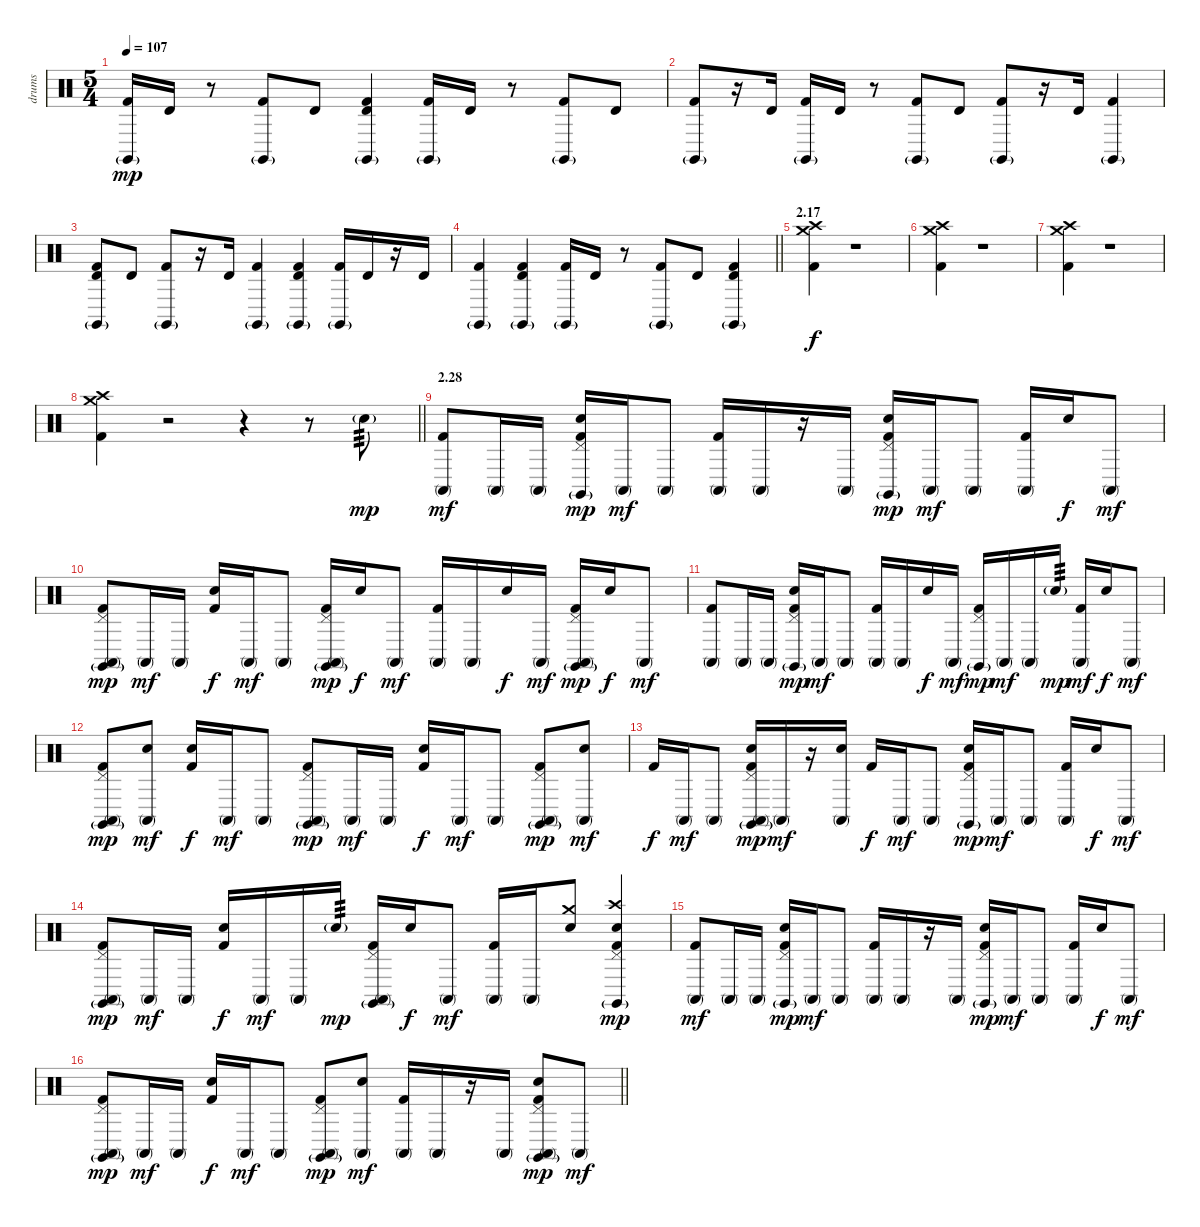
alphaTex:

\track ("drums" "drums") {instrument percussion}
\staff {score}
\articulation defaults
\ts (5 4)
\tempo 107
\clef neutral
\ks c
("Claves (hit)"{g} "Kick (hit) 2").16{dy mp} "Timbale high (hit)".16 r.8 ("Claves (hit)"{g} "Kick (hit) 2").8 "Timbale high (hit)".8 ("Timbale high (hit)" "Claves (hit)"{g} "Kick (hit) 2").4 ("Claves (hit)"{g} "Kick (hit) 2").16 "Timbale high (hit)".16 r.8 ("Claves (hit)"{g} "Kick (hit) 2").8 "Timbale high (hit)".8 |
("Claves (hit)"{g} "Kick (hit) 2").8 r.16 "Timbale high (hit)".16 ("Claves (hit)"{g} "Kick (hit) 2").16 "Timbale high (hit)".16 r.8 ("Claves (hit)"{g} "Kick (hit) 2").8 "Timbale high (hit)".8 ("Claves (hit)"{g} "Kick (hit) 2").8 r.16 "Timbale high (hit)".16 ("Claves (hit)"{g} "Kick (hit) 2").4 |
("Timbale high (hit)" "Claves (hit)"{g} "Kick (hit) 2").8 "Timbale high (hit)".8 ("Claves (hit)"{g} "Kick (hit) 2").8 r.16 "Timbale high (hit)".16 ("Claves (hit)"{g} "Kick (hit) 2").4 ("Timbale high (hit)" "Claves (hit)"{g} "Kick (hit) 2").4 ("Claves (hit)"{g} "Kick (hit) 2").16 "Timbale high (hit)".16 r.16 "Timbale high (hit)".16 |
\barLineRight lightlight
("Claves (hit)"{g} "Kick (hit) 2").4 ("Timbale high (hit)" "Claves (hit)"{g} "Kick (hit) 2").4 ("Claves (hit)"{g} "Kick (hit) 2").16 "Timbale high (hit)".16 r.8 ("Claves (hit)"{g} "Kick (hit) 2").8 "Timbale high (hit)".8 ("Timbale high (hit)" "Claves (hit)"{g} "Kick (hit) 2").4 |
\section ("" "2.17")
("Crash medium (hit)" "Crash high (hit)" "Kick (hit) 2").4{dy f} r.1 |
("Crash medium (hit)" "Crash high (hit)" "Kick (hit) 2").4 r.1 |
("Crash medium (hit)" "Crash high (hit)" "Kick (hit) 2").4 r.1 |
\barLineRight lightlight
("Crash medium (hit)" "Crash high (hit)" "Kick (hit) 2").4 r.2 r.4 r.8 "Electric Snare (hit)"{g}.8{tp 3 dy mp} |
\section ("" "2.28")
("Conga high (mute)" "Kick (hit) 2").8{dy mf} "Conga high (mute)".16 "Conga high (mute)".16 ("Pedal Hi-Hat (hit)" "Claves (hit)"{g} "Electric Snare (hit)" "Kick (hit) 2").16{dy mp} "Conga high (mute)".16{dy mf} "Conga high (mute)".8 ("Conga high (mute)" "Kick (hit) 2").16 "Conga high (mute)".16 r.16 "Conga high (mute)".16 ("Pedal Hi-Hat (hit)" "Claves (hit)"{g} "Electric Snare (hit)" "Kick (hit) 2").16{dy mp} "Conga high (mute)".16{dy mf} "Conga high (mute)".8 ("Conga high (mute)" "Kick (hit) 2").16 "Electric Snare (hit)".16{dy f} "Conga high (mute)".8{dy mf} |
("Pedal Hi-Hat (hit)" "Conga high (mute)" "Claves (hit)"{g} "Kick (hit) 2").8{dy mp} "Conga high (mute)".16{dy mf} "Conga high (mute)".16 ("Electric Snare (hit)" "Kick (hit) 2").16{dy f} "Conga high (mute)".16{dy mf} "Conga high (mute)".8 ("Pedal Hi-Hat (hit)" "Conga high (mute)" "Claves (hit)"{g} "Kick (hit) 2").16{dy mp} "Electric Snare (hit)".16{dy f} "Conga high (mute)".8{dy mf} ("Conga high (mute)" "Kick (hit) 2").16 "Conga high (mute)".16 "Electric Snare (hit)".16{dy f} "Conga high (mute)".16{dy mf} ("Pedal Hi-Hat (hit)" "Conga high (mute)" "Claves (hit)"{g} "Kick (hit) 2").16{dy mp} "Electric Snare (hit)".16{dy f} "Conga high (mute)".8{dy mf} |
("Conga high (mute)" "Kick (hit) 2").8 "Conga high (mute)".16 "Conga high (mute)".16 ("Pedal Hi-Hat (hit)" "Claves (hit)"{g} "Electric Snare (hit)" "Kick (hit) 2").16{dy mp} "Conga high (mute)".16{dy mf} "Conga high (mute)".8 ("Conga high (mute)" "Kick (hit) 2").16 "Conga high (mute)".16 "Electric Snare (hit)".16{dy f} "Conga high (mute)".16{dy mf} ("Pedal Hi-Hat (hit)" "Claves (hit)"{g} "Kick (hit) 2").16{dy mp} "Conga high (mute)".16{dy mf} "Conga high (mute)".16 "Electric Snare (hit)"{g}.16{tp 3 dy mp} ("Conga high (mute)" "Kick (hit) 2").16{dy mf} "Electric Snare (hit)".16{dy f} "Conga high (mute)".8{dy mf} |
("Pedal Hi-Hat (hit)" "Conga high (mute)" "Claves (hit)"{g} "Kick (hit) 2").8{dy mp} ("Conga high (mute)" "Electric Snare (hit)").8{dy mf} ("Electric Snare (hit)" "Kick (hit) 2").16{dy f} "Conga high (mute)".16{dy mf} "Conga high (mute)".8 ("Pedal Hi-Hat (hit)" "Conga high (mute)" "Claves (hit)"{g} "Kick (hit) 2").8{dy mp} "Conga high (mute)".16{dy mf} "Conga high (mute)".16 ("Electric Snare (hit)" "Kick (hit) 2").16{dy f} "Conga high (mute)".16{dy mf} "Conga high (mute)".8 ("Pedal Hi-Hat (hit)" "Conga high (mute)" "Claves (hit)"{g} "Kick (hit) 2").8{dy mp} ("Conga high (mute)" "Electric Snare (hit)").8{dy mf} |
"Kick (hit) 2".16{dy f} "Conga high (mute)".16{dy mf} "Conga high (mute)".8 ("Pedal Hi-Hat (hit)" "Conga high (mute)" "Claves (hit)"{g} "Electric Snare (hit)" "Kick (hit) 2").16{dy mp} "Conga high (mute)".16{dy mf} r.16 ("Conga high (mute)" "Electric Snare (hit)").16 "Kick (hit) 2".16{dy f} "Conga high (mute)".16{dy mf} "Conga high (mute)".8 ("Pedal Hi-Hat (hit)" "Claves (hit)"{g} "Electric Snare (hit)" "Kick (hit) 2").16{dy mp} "Conga high (mute)".16{dy mf} "Conga high (mute)".8 ("Conga high (mute)" "Kick (hit) 2").16 "Electric Snare (hit)".16{dy f} "Conga high (mute)".8{dy mf} |
("Pedal Hi-Hat (hit)" "Conga high (mute)" "Claves (hit)"{g} "Kick (hit) 2").8{dy mp} "Conga high (mute)".16{dy mf} "Conga high (mute)".16 ("Electric Snare (hit)" "Kick (hit) 2").16{dy f} "Conga high (mute)".16{dy mf} "Conga high (mute)".16 "Electric Snare (hit)"{g}.16{tp 3 dy mp} ("Pedal Hi-Hat (hit)" "Conga high (mute)" "Claves (hit)"{g} "Kick (hit) 2").16 "Electric Snare (hit)".16{dy f} "Conga high (mute)".8{dy mf} ("Conga high (mute)" "Kick (hit) 2").16 "Conga high (mute)".16 ("Crash medium (hit)" "Electric Snare (hit)").8 ("Pedal Hi-Hat (hit)" "Crash high (hit)" "Claves (hit)"{g} "Electric Snare (hit)" "Kick (hit) 2").4{dy mp} |
("Conga high (mute)" "Kick (hit) 2").8{dy mf} "Conga high (mute)".16 "Conga high (mute)".16 ("Pedal Hi-Hat (hit)" "Claves (hit)"{g} "Electric Snare (hit)" "Kick (hit) 2").16{dy mp} "Conga high (mute)".16{dy mf} "Conga high (mute)".8 ("Conga high (mute)" "Kick (hit) 2").16 "Conga high (mute)".16 r.16 "Conga high (mute)".16 ("Pedal Hi-Hat (hit)" "Claves (hit)"{g} "Electric Snare (hit)" "Kick (hit) 2").16{dy mp} "Conga high (mute)".16{dy mf} "Conga high (mute)".8 ("Conga high (mute)" "Kick (hit) 2").16 "Electric Snare (hit)".16{dy f} "Conga high (mute)".8{dy mf} |
\barLineRight lightlight
("Pedal Hi-Hat (hit)" "Conga high (mute)" "Claves (hit)"{g} "Kick (hit) 2").8{dy mp} "Conga high (mute)".16{dy mf} "Conga high (mute)".16 ("Electric Snare (hit)" "Kick (hit) 2").16{dy f} "Conga high (mute)".16{dy mf} "Conga high (mute)".8 ("Pedal Hi-Hat (hit)" "Conga high (mute)" "Claves (hit)"{g} "Kick (hit) 2").8{dy mp} ("Conga high (mute)" "Electric Snare (hit)").8{dy mf} ("Conga high (mute)" "Kick (hit) 2").16 "Conga high (mute)".16 r.16 "Conga high (mute)".16 ("Pedal Hi-Hat (hit)" "Conga high (mute)" "Claves (hit)"{g} "Electric Snare (hit)" "Kick (hit) 2").8{dy mp} "Conga high (mute)".8{dy mf}
